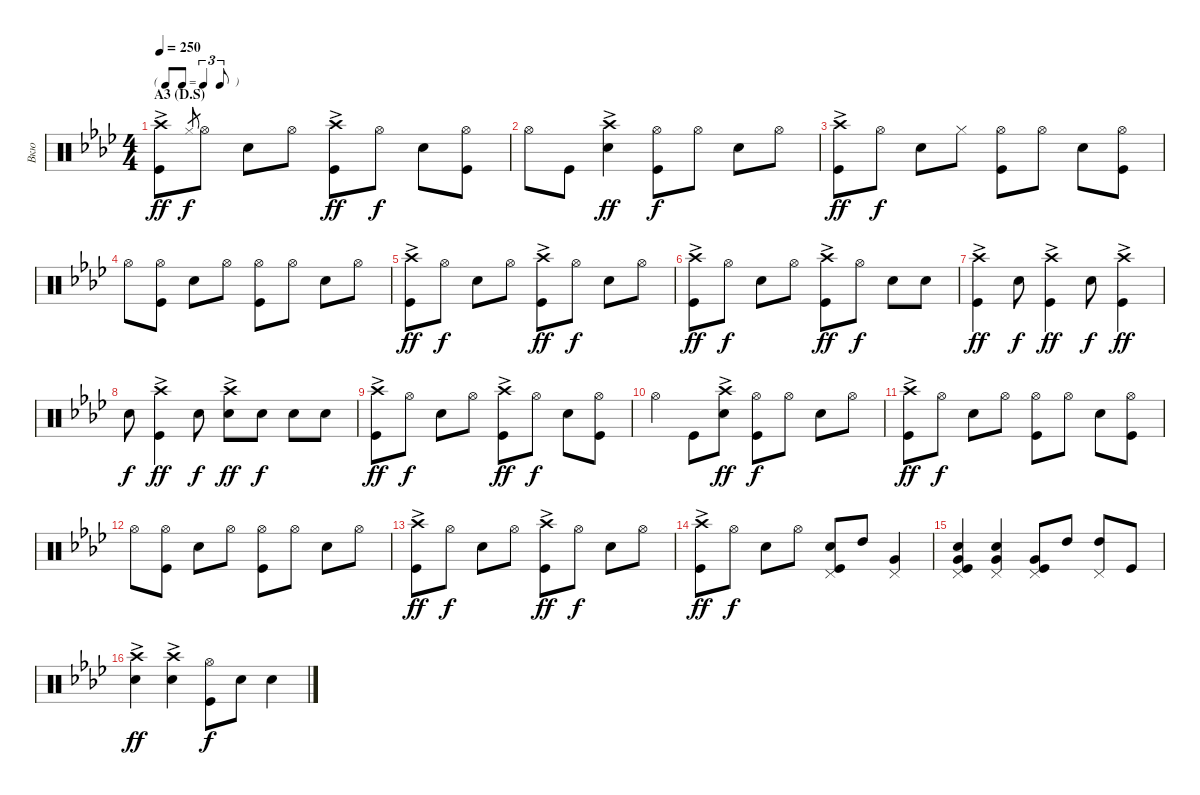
\track ("Вкю" "Вкю") {instrument percussion}
\staff {score}
\articulation defaults
\ts (4 4)
\tf triplet8th
\section ("" "A3 (D.S)")
\tempo 250
\clef neutral
\ks ab
("Crash high (hit)"{ac} "Kick (hit)"{ac}).8{dy ff} "Hi-Hat (closed)".8{gr dy f} "Hi-Hat (open)".8 "Snare (hit) 2".8 "Hi-Hat (open)".8 ("Crash high (hit)"{ac} "Kick (hit)"{ac}).8{dy ff} "Hi-Hat (open)".8{dy f} "Snare (hit) 2".8 ("Hi-Hat (open)" "Kick (hit)").8 |
"Hi-Hat (open)".8 "Kick (hit)".8 ("Crash high (hit)"{ac} "Snare (hit) 2"{ac}).4{dy ff} ("Hi-Hat (open)" "Kick (hit)").8{dy f} "Hi-Hat (open)".8 "Snare (hit) 2".8 "Hi-Hat (open)".8 |
("Crash high (hit)"{ac} "Kick (hit)"{ac}).8{dy ff} "Hi-Hat (open)".8{dy f} "Snare (hit) 2".8 "Hi-Hat (closed)".8 ("Hi-Hat (open)" "Kick (hit)").8 "Hi-Hat (open)".8 "Snare (hit) 2".8 ("Hi-Hat (open)" "Kick (hit)").8 |
"Hi-Hat (open)".8 ("Hi-Hat (open)" "Kick (hit)").8 "Snare (hit) 2".8 "Hi-Hat (open)".8 ("Hi-Hat (open)" "Kick (hit)").8 "Hi-Hat (open)".8 "Snare (hit) 2".8 "Hi-Hat (open)".8 |
("Crash high (hit)"{ac} "Kick (hit)"{ac}).8{dy ff} "Hi-Hat (open)".8{dy f} "Snare (hit) 2".8 "Hi-Hat (open)".8 ("Crash high (hit)"{ac} "Kick (hit)"{ac}).8{dy ff} "Hi-Hat (open)".8{dy f} "Snare (hit) 2".8 "Hi-Hat (open)".8 |
("Crash high (hit)"{ac} "Kick (hit)"{ac}).8{dy ff} "Hi-Hat (open)".8{dy f} "Snare (hit) 2".8 "Hi-Hat (open)".8 ("Crash high (hit)"{ac} "Kick (hit)"{ac}).8{dy ff} "Hi-Hat (open)".8{dy f} "Snare (hit) 2".8 "Snare (hit) 2".8 |
("Crash high (hit)"{ac} "Kick (hit)"{ac}).4{dy ff} "Snare (hit) 2".8{dy f} ("Crash high (hit)"{ac} "Kick (hit)"{ac}).4{dy ff} "Snare (hit) 2".8{dy f} ("Crash high (hit)"{ac} "Kick (hit)"{ac}).4{dy ff} |
"Snare (hit) 2".8{dy f} ("Crash high (hit)"{ac} "Kick (hit)"{ac}).4{dy ff} "Snare (hit) 2".8{dy f} ("Crash high (hit)"{ac} "Snare (hit) 2"{ac}).8{dy ff} "Snare (hit) 2".8{dy f} "Snare (hit) 2".8 "Snare (hit) 2".8 |
("Crash high (hit)"{ac} "Kick (hit)"{ac}).8{dy ff} "Hi-Hat (open)".8{dy f} "Snare (hit) 2".8 "Hi-Hat (open)".8 ("Crash high (hit)"{ac} "Kick (hit)"{ac}).8{dy ff} "Hi-Hat (open)".8{dy f} "Snare (hit) 2".8 ("Hi-Hat (open)" "Kick (hit)").8 |
"Hi-Hat (open)".4 "Kick (hit)".8 ("Crash high (hit)"{ac} "Snare (hit) 2"{ac}).8{dy ff} ("Hi-Hat (open)" "Kick (hit)").8{dy f} "Hi-Hat (open)".8 "Snare (hit) 2".8 "Hi-Hat (open)".8 |
("Crash high (hit)"{ac} "Kick (hit)"{ac}).8{dy ff} "Hi-Hat (open)".8{dy f} "Snare (hit) 2".8 "Hi-Hat (open)".8 ("Hi-Hat (open)" "Kick (hit)").8 "Hi-Hat (open)".8 "Snare (hit) 2".8 ("Hi-Hat (open)" "Kick (hit)").8 |
"Hi-Hat (open)".8 ("Hi-Hat (open)" "Kick (hit)").8 "Snare (hit) 2".8 "Hi-Hat (open)".8 ("Hi-Hat (open)" "Kick (hit)").8 "Hi-Hat (open)".8 "Snare (hit) 2".8 "Hi-Hat (open)".8 |
("Crash high (hit)"{ac} "Kick (hit)"{ac}).8{dy ff} "Hi-Hat (open)".8{dy f} "Snare (hit) 2".8 "Hi-Hat (open)".8 ("Crash high (hit)"{ac} "Kick (hit)"{ac}).8{dy ff} "Hi-Hat (open)".8{dy f} "Snare (hit) 2".8 "Hi-Hat (open)".8 |
("Crash high (hit)"{ac} "Kick (hit)"{ac}).8{dy ff} "Hi-Hat (open)".8{dy f} "Snare (hit) 2".8 "Hi-Hat (open)".8 ("Snare (hit) 2" "Kick (hit)" "Pedal Hi-Hat (hit)").8 "High Tom (hit)".8 ("Very Low Tom (hit)" "Pedal Hi-Hat (hit)").4 |
("Very Low Tom (hit)" "Snare (hit) 2" "Kick (hit)" "Pedal Hi-Hat (hit)").4 ("Very Low Tom (hit)" "Snare (hit) 2" "Pedal Hi-Hat (hit)").4 ("Very Low Tom (hit)" "Kick (hit)" "Pedal Hi-Hat (hit)").8 "High Tom (hit)".8 ("High Tom (hit)" "Pedal Hi-Hat (hit)").8 "Kick (hit)".8 |
("Crash high (hit)"{ac} "Snare (hit) 2"{ac}).4{dy ff} ("Crash high (hit)"{ac} "Snare (hit) 2"{ac}).4 ("Hi-Hat (open)" "Kick (hit)").8{dy f} "Snare (hit) 2".8 "Snare (hit) 2".4
